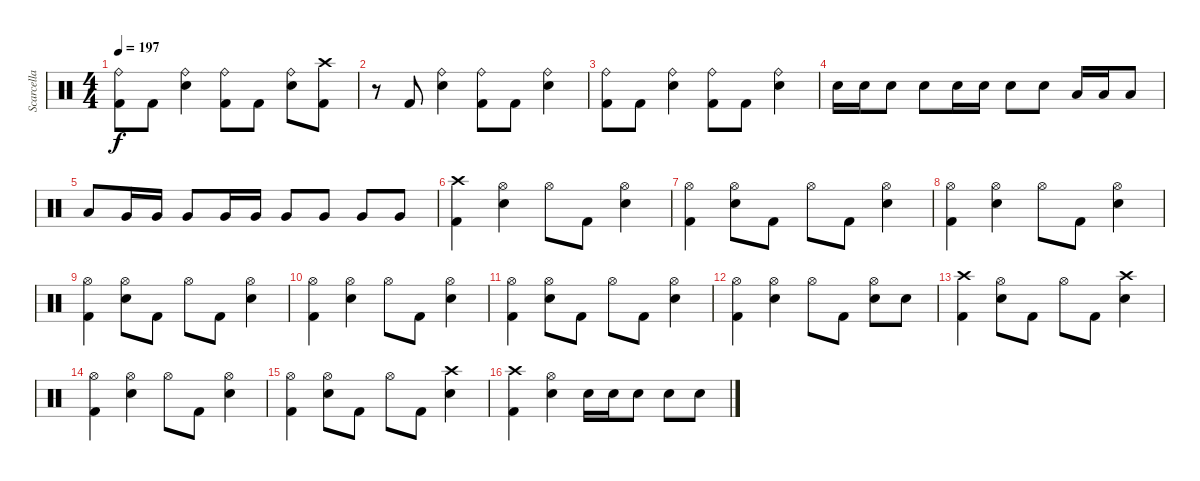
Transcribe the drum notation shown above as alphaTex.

\track ("Scarcella" "Scarcella") {instrument percussion}
\staff {score}
\articulation defaults
\ts (4 4)
\tempo 197
\clef neutral
\ks c
("Ride (bell)" "Kick (hit) 2").8{dy f} "Kick (hit) 2".8 ("Ride (bell)" "Electric Snare (hit)").4 ("Ride (bell)" "Kick (hit) 2").8 "Kick (hit) 2".8 ("Ride (bell)" "Electric Snare (hit)").8 ("Crash high (hit)" "Kick (hit) 2").8 |
r.8 "Kick (hit) 2".8 ("Ride (bell)" "Electric Snare (hit)").4 ("Ride (bell)" "Kick (hit) 2").8 "Kick (hit) 2".8 ("Ride (bell)" "Electric Snare (hit)").4 |
("Ride (bell)" "Kick (hit) 2").8 "Kick (hit) 2".8 ("Ride (bell)" "Electric Snare (hit)").4 ("Ride (bell)" "Kick (hit) 2").8 "Kick (hit) 2".8 ("Ride (bell)" "Electric Snare (hit)").4 |
"Electric Snare (hit)".16 "Electric Snare (hit)".16 "Electric Snare (hit)".8 "Electric Snare (hit)".8 "Electric Snare (hit)".16 "Electric Snare (hit)".16 "Electric Snare (hit)".8 "Electric Snare (hit)".8 "Low Tom (hit)".16 "Low Tom (hit)".16 "Low Tom (hit)".8 |
"Low Tom (hit)".8 "Very Low Tom (hit)".16 "Very Low Tom (hit)".16 "Very Low Tom (hit)".8 "Very Low Tom (hit)".16 "Very Low Tom (hit)".16 "Very Low Tom (hit)".8 "Very Low Tom (hit)".8 "Very Low Tom (hit)".8 "Very Low Tom (hit)".8 |
("Crash high (hit)" "Kick (hit) 2").4 ("Hi-Hat (open)" "Electric Snare (hit)").4 "Hi-Hat (open)".8 "Kick (hit) 2".8 ("Hi-Hat (open)" "Electric Snare (hit)").4 |
("Hi-Hat (open)" "Kick (hit) 2").4 ("Hi-Hat (open)" "Electric Snare (hit)").8 "Kick (hit) 2".8 "Hi-Hat (open)".8 "Kick (hit) 2".8 ("Hi-Hat (open)" "Electric Snare (hit)").4 |
("Hi-Hat (open)" "Kick (hit) 2").4 ("Hi-Hat (open)" "Electric Snare (hit)").4 "Hi-Hat (open)".8 "Kick (hit) 2".8 ("Hi-Hat (open)" "Electric Snare (hit)").4 |
("Hi-Hat (open)" "Kick (hit) 2").4 ("Hi-Hat (open)" "Electric Snare (hit)").8 "Kick (hit) 2".8 "Hi-Hat (open)".8 "Kick (hit) 2".8 ("Hi-Hat (open)" "Electric Snare (hit)").4 |
("Hi-Hat (open)" "Kick (hit) 2").4 ("Hi-Hat (open)" "Electric Snare (hit)").4 "Hi-Hat (open)".8 "Kick (hit) 2".8 ("Hi-Hat (open)" "Electric Snare (hit)").4 |
("Hi-Hat (open)" "Kick (hit) 2").4 ("Hi-Hat (open)" "Electric Snare (hit)").8 "Kick (hit) 2".8 "Hi-Hat (open)".8 "Kick (hit) 2".8 ("Hi-Hat (open)" "Electric Snare (hit)").4 |
("Hi-Hat (open)" "Kick (hit) 2").4 ("Hi-Hat (open)" "Electric Snare (hit)").4 "Hi-Hat (open)".8 "Kick (hit) 2".8 ("Hi-Hat (open)" "Electric Snare (hit)").8 "Electric Snare (hit)".8 |
("Crash high (hit)" "Kick (hit) 2").4 ("Hi-Hat (open)" "Electric Snare (hit)").8 "Kick (hit) 2".8 "Hi-Hat (open)".8 "Kick (hit) 2".8 ("Crash high (hit)" "Electric Snare (hit)").4 |
("Hi-Hat (open)" "Kick (hit) 2").4 ("Hi-Hat (open)" "Electric Snare (hit)").4 "Hi-Hat (open)".8 "Kick (hit) 2".8 ("Hi-Hat (open)" "Electric Snare (hit)").4 |
("Hi-Hat (open)" "Kick (hit) 2").4 ("Hi-Hat (open)" "Electric Snare (hit)").8 "Kick (hit) 2".8 "Hi-Hat (open)".8 "Kick (hit) 2".8 ("Crash high (hit)" "Electric Snare (hit)").4 |
("Crash high (hit)" "Kick (hit) 2").4 ("Hi-Hat (open)" "Electric Snare (hit)").4 "Electric Snare (hit)".16 "Electric Snare (hit)".16 "Electric Snare (hit)".8 "Electric Snare (hit)".8 "Electric Snare (hit)".8
